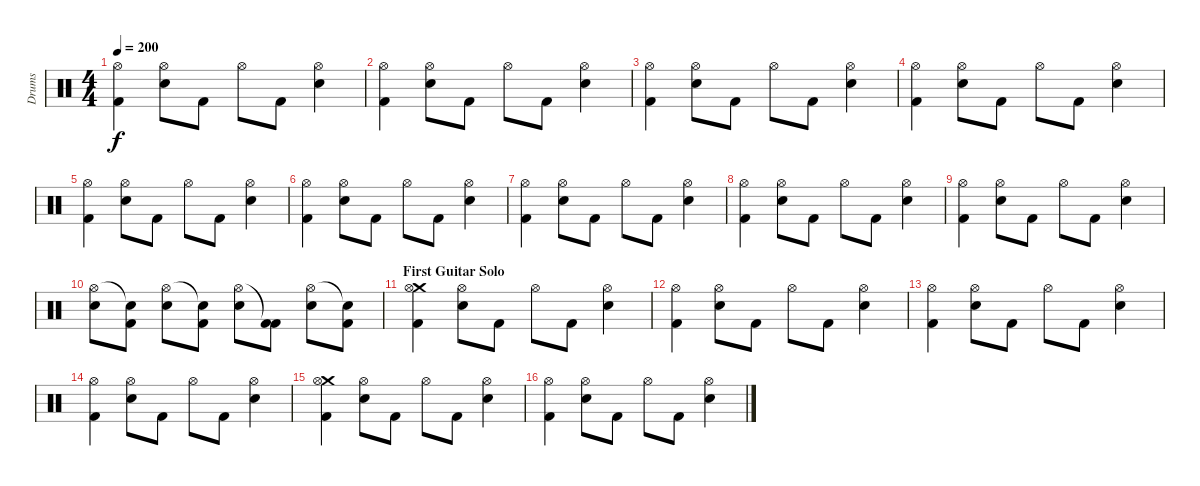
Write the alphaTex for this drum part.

\track ("Drums" "Drums") {instrument percussion}
\staff {score}
\articulation defaults
\ts (4 4)
\tempo 200
\clef neutral
\ks c
("Hi-Hat (open)" "Kick (hit) 2").4{dy f} ("Hi-Hat (open)" "Snare (hit) 2").8 "Kick (hit) 2".8 "Hi-Hat (open)".8 "Kick (hit) 2".8 ("Hi-Hat (open)" "Snare (hit) 2").4 |
("Hi-Hat (open)" "Kick (hit) 2").4 ("Hi-Hat (open)" "Snare (hit) 2").8 "Kick (hit) 2".8 "Hi-Hat (open)".8 "Kick (hit) 2".8 ("Hi-Hat (open)" "Snare (hit) 2").4 |
("Hi-Hat (open)" "Kick (hit) 2").4 ("Hi-Hat (open)" "Snare (hit) 2").8 "Kick (hit) 2".8 "Hi-Hat (open)".8 "Kick (hit) 2".8 ("Hi-Hat (open)" "Snare (hit) 2").4 |
("Hi-Hat (open)" "Kick (hit) 2").4 ("Hi-Hat (open)" "Snare (hit) 2").8 "Kick (hit) 2".8 "Hi-Hat (open)".8 "Kick (hit) 2".8 ("Hi-Hat (open)" "Snare (hit) 2").4 |
("Hi-Hat (open)" "Kick (hit) 2").4 ("Hi-Hat (open)" "Snare (hit) 2").8 "Kick (hit) 2".8 "Hi-Hat (open)".8 "Kick (hit) 2".8 ("Hi-Hat (open)" "Snare (hit) 2").4 |
("Hi-Hat (open)" "Kick (hit) 2").4 ("Hi-Hat (open)" "Snare (hit) 2").8 "Kick (hit) 2".8 "Hi-Hat (open)".8 "Kick (hit) 2".8 ("Hi-Hat (open)" "Snare (hit) 2").4 |
("Hi-Hat (open)" "Kick (hit) 2").4 ("Hi-Hat (open)" "Snare (hit) 2").8 "Kick (hit) 2".8 "Hi-Hat (open)".8 "Kick (hit) 2".8 ("Hi-Hat (open)" "Snare (hit) 2").4 |
("Hi-Hat (open)" "Kick (hit) 2").4 ("Hi-Hat (open)" "Snare (hit) 2").8 "Kick (hit) 2".8 "Hi-Hat (open)".8 "Kick (hit) 2".8 ("Hi-Hat (open)" "Snare (hit) 2").4 |
("Hi-Hat (open)" "Kick (hit) 2").4 ("Hi-Hat (open)" "Snare (hit) 2").8 "Kick (hit) 2".8 "Hi-Hat (open)".8 "Kick (hit) 2".8 ("Hi-Hat (open)" "Snare (hit) 2").4 |
("Hi-Hat (open)" "Snare (hit) 2").8 ("Snare (hit)"{t} "Kick (hit) 2").8 ("Hi-Hat (open)" "Snare (hit) 2").8 ("Snare (hit)"{t} "Kick (hit) 2").8 ("Hi-Hat (open)" "Snare (hit) 2").8 ("Kick (hit) 2"{t} "Kick (hit) 2").8 ("Hi-Hat (open)" "Snare (hit) 2").8 ("Snare (hit)"{t} "Kick (hit) 2").8 |
\section ("" "First Guitar Solo")
("Crash medium (hit)" "Hi-Hat (open)" "Kick (hit) 2").4 ("Hi-Hat (open)" "Snare (hit) 2").8 "Kick (hit) 2".8 "Hi-Hat (open)".8 "Kick (hit) 2".8 ("Hi-Hat (open)" "Snare (hit) 2").4 |
("Hi-Hat (open)" "Kick (hit) 2").4 ("Hi-Hat (open)" "Snare (hit) 2").8 "Kick (hit) 2".8 "Hi-Hat (open)".8 "Kick (hit) 2".8 ("Hi-Hat (open)" "Snare (hit) 2").4 |
("Hi-Hat (open)" "Kick (hit) 2").4 ("Hi-Hat (open)" "Snare (hit) 2").8 "Kick (hit) 2".8 "Hi-Hat (open)".8 "Kick (hit) 2".8 ("Hi-Hat (open)" "Snare (hit) 2").4 |
("Hi-Hat (open)" "Kick (hit) 2").4 ("Hi-Hat (open)" "Snare (hit) 2").8 "Kick (hit) 2".8 "Hi-Hat (open)".8 "Kick (hit) 2".8 ("Hi-Hat (open)" "Snare (hit) 2").4 |
("Crash medium (hit)" "Hi-Hat (open)" "Kick (hit) 2").4 ("Hi-Hat (open)" "Snare (hit) 2").8 "Kick (hit) 2".8 "Hi-Hat (open)".8 "Kick (hit) 2".8 ("Hi-Hat (open)" "Snare (hit) 2").4 |
("Hi-Hat (open)" "Kick (hit) 2").4 ("Hi-Hat (open)" "Snare (hit) 2").8 "Kick (hit) 2".8 "Hi-Hat (open)".8 "Kick (hit) 2".8 ("Hi-Hat (open)" "Snare (hit) 2").4
